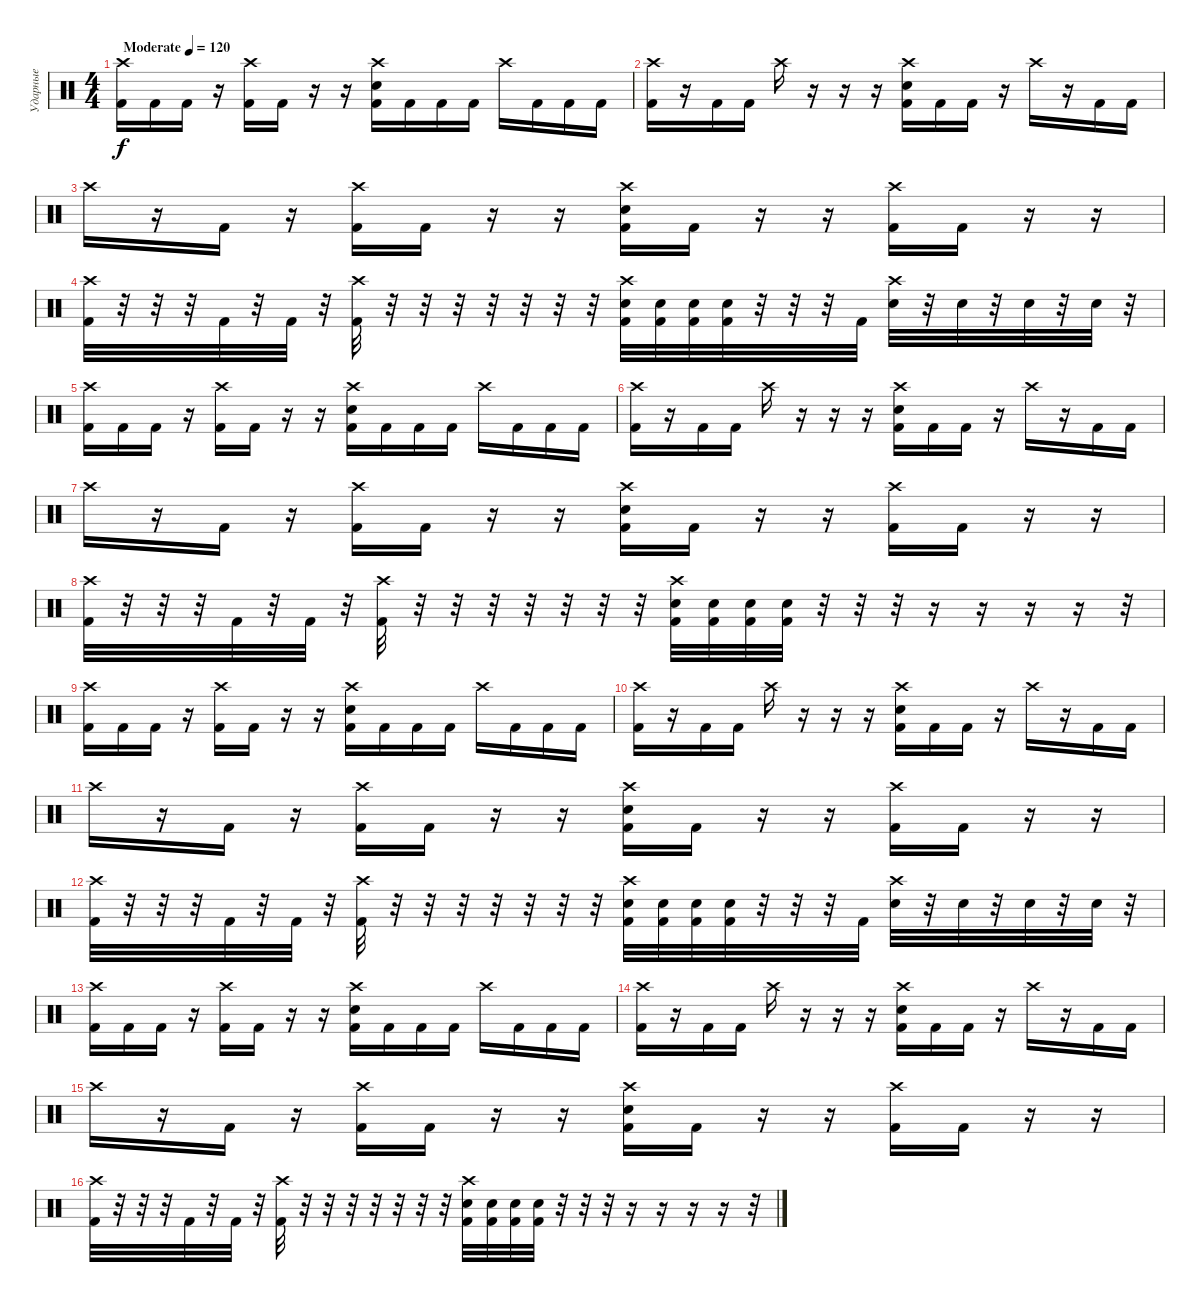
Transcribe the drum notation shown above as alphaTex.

\track ("Ударные" "Ударные") {instrument percussion}
\staff {score}
\articulation defaults
\ts (4 4)
\tempo (120 "Moderate")
\clef neutral
\ks c
("Crash high (hit)" "Kick (hit) 2").16{dy f} "Kick (hit) 2".16 "Kick (hit) 2".16 r.16 ("Crash high (hit)" "Kick (hit) 2").16 "Kick (hit) 2".16 r.16 r.16 ("Crash high (hit)" "Electric Snare (hit)" "Kick (hit) 2").16 "Kick (hit) 2".16 "Kick (hit) 2".16 "Kick (hit) 2".16 "Crash high (hit)".16 "Kick (hit) 2".16 "Kick (hit) 2".16 "Kick (hit) 2".16 |
("Crash high (hit)" "Kick (hit) 2").16 r.16 "Kick (hit) 2".16 "Kick (hit) 2".16 "Crash high (hit)".16 r.16 r.16 r.16 ("Crash high (hit)" "Electric Snare (hit)" "Kick (hit) 2").16 "Kick (hit) 2".16 "Kick (hit) 2".16 r.16 "Crash high (hit)".16 r.16 "Kick (hit) 2".16 "Kick (hit) 2".16 |
"Crash high (hit)".16 r.16 "Kick (hit) 2".16 r.16 ("Crash high (hit)" "Kick (hit) 2").16 "Kick (hit) 2".16 r.16 r.16 ("Crash high (hit)" "Electric Snare (hit)" "Kick (hit) 2").16 "Kick (hit) 2".16 r.16 r.16 ("Crash high (hit)" "Kick (hit) 2").16 "Kick (hit) 2".16 r.16 r.16 |
("Crash high (hit)" "Kick (hit) 2").32 r.32 r.32 r.32 "Kick (hit) 2".32 r.32 "Kick (hit) 2".32 r.32 ("Crash high (hit)" "Kick (hit) 2").32 r.32 r.32 r.32 r.32 r.32 r.32 r.32 ("Crash high (hit)" "Electric Snare (hit)" "Kick (hit) 2").32 ("Electric Snare (hit)" "Kick (hit) 2").32 ("Electric Snare (hit)" "Kick (hit) 2").32 ("Electric Snare (hit)" "Kick (hit) 2").32 r.32 r.32 r.32 "Kick (hit) 2".32 ("Crash high (hit)" "Electric Snare (hit)").32 r.32 "Electric Snare (hit)".32 r.32 "Electric Snare (hit)".32 r.32 "Electric Snare (hit)".32 r.32 |
("Crash high (hit)" "Kick (hit) 2").16 "Kick (hit) 2".16 "Kick (hit) 2".16 r.16 ("Crash high (hit)" "Kick (hit) 2").16 "Kick (hit) 2".16 r.16 r.16 ("Crash high (hit)" "Electric Snare (hit)" "Kick (hit) 2").16 "Kick (hit) 2".16 "Kick (hit) 2".16 "Kick (hit) 2".16 "Crash high (hit)".16 "Kick (hit) 2".16 "Kick (hit) 2".16 "Kick (hit) 2".16 |
("Crash high (hit)" "Kick (hit) 2").16 r.16 "Kick (hit) 2".16 "Kick (hit) 2".16 "Crash high (hit)".16 r.16 r.16 r.16 ("Crash high (hit)" "Electric Snare (hit)" "Kick (hit) 2").16 "Kick (hit) 2".16 "Kick (hit) 2".16 r.16 "Crash high (hit)".16 r.16 "Kick (hit) 2".16 "Kick (hit) 2".16 |
"Crash high (hit)".16 r.16 "Kick (hit) 2".16 r.16 ("Crash high (hit)" "Kick (hit) 2").16 "Kick (hit) 2".16 r.16 r.16 ("Crash high (hit)" "Electric Snare (hit)" "Kick (hit) 2").16 "Kick (hit) 2".16 r.16 r.16 ("Crash high (hit)" "Kick (hit) 2").16 "Kick (hit) 2".16 r.16 r.16 |
("Crash high (hit)" "Kick (hit) 2").32 r.32 r.32 r.32 "Kick (hit) 2".32 r.32 "Kick (hit) 2".32 r.32 ("Crash high (hit)" "Kick (hit) 2").32 r.32 r.32 r.32 r.32 r.32 r.32 r.32 ("Crash high (hit)" "Electric Snare (hit)" "Kick (hit) 2").32 ("Electric Snare (hit)" "Kick (hit) 2").32 ("Electric Snare (hit)" "Kick (hit) 2").32 ("Electric Snare (hit)" "Kick (hit) 2").32 r.32 r.32 r.32 r.16 r.16 r.16 r.16 r.32 |
("Crash high (hit)" "Kick (hit) 2").16 "Kick (hit) 2".16 "Kick (hit) 2".16 r.16 ("Crash high (hit)" "Kick (hit) 2").16 "Kick (hit) 2".16 r.16 r.16 ("Crash high (hit)" "Electric Snare (hit)" "Kick (hit) 2").16 "Kick (hit) 2".16 "Kick (hit) 2".16 "Kick (hit) 2".16 "Crash high (hit)".16 "Kick (hit) 2".16 "Kick (hit) 2".16 "Kick (hit) 2".16 |
("Crash high (hit)" "Kick (hit) 2").16 r.16 "Kick (hit) 2".16 "Kick (hit) 2".16 "Crash high (hit)".16 r.16 r.16 r.16 ("Crash high (hit)" "Electric Snare (hit)" "Kick (hit) 2").16 "Kick (hit) 2".16 "Kick (hit) 2".16 r.16 "Crash high (hit)".16 r.16 "Kick (hit) 2".16 "Kick (hit) 2".16 |
"Crash high (hit)".16 r.16 "Kick (hit) 2".16 r.16 ("Crash high (hit)" "Kick (hit) 2").16 "Kick (hit) 2".16 r.16 r.16 ("Crash high (hit)" "Electric Snare (hit)" "Kick (hit) 2").16 "Kick (hit) 2".16 r.16 r.16 ("Crash high (hit)" "Kick (hit) 2").16 "Kick (hit) 2".16 r.16 r.16 |
("Crash high (hit)" "Kick (hit) 2").32 r.32 r.32 r.32 "Kick (hit) 2".32 r.32 "Kick (hit) 2".32 r.32 ("Crash high (hit)" "Kick (hit) 2").32 r.32 r.32 r.32 r.32 r.32 r.32 r.32 ("Crash high (hit)" "Electric Snare (hit)" "Kick (hit) 2").32 ("Electric Snare (hit)" "Kick (hit) 2").32 ("Electric Snare (hit)" "Kick (hit) 2").32 ("Electric Snare (hit)" "Kick (hit) 2").32 r.32 r.32 r.32 "Kick (hit) 2".32 ("Crash high (hit)" "Electric Snare (hit)").32 r.32 "Electric Snare (hit)".32 r.32 "Electric Snare (hit)".32 r.32 "Electric Snare (hit)".32 r.32 |
("Crash high (hit)" "Kick (hit) 2").16 "Kick (hit) 2".16 "Kick (hit) 2".16 r.16 ("Crash high (hit)" "Kick (hit) 2").16 "Kick (hit) 2".16 r.16 r.16 ("Crash high (hit)" "Electric Snare (hit)" "Kick (hit) 2").16 "Kick (hit) 2".16 "Kick (hit) 2".16 "Kick (hit) 2".16 "Crash high (hit)".16 "Kick (hit) 2".16 "Kick (hit) 2".16 "Kick (hit) 2".16 |
("Crash high (hit)" "Kick (hit) 2").16 r.16 "Kick (hit) 2".16 "Kick (hit) 2".16 "Crash high (hit)".16 r.16 r.16 r.16 ("Crash high (hit)" "Electric Snare (hit)" "Kick (hit) 2").16 "Kick (hit) 2".16 "Kick (hit) 2".16 r.16 "Crash high (hit)".16 r.16 "Kick (hit) 2".16 "Kick (hit) 2".16 |
"Crash high (hit)".16 r.16 "Kick (hit) 2".16 r.16 ("Crash high (hit)" "Kick (hit) 2").16 "Kick (hit) 2".16 r.16 r.16 ("Crash high (hit)" "Electric Snare (hit)" "Kick (hit) 2").16 "Kick (hit) 2".16 r.16 r.16 ("Crash high (hit)" "Kick (hit) 2").16 "Kick (hit) 2".16 r.16 r.16 |
("Crash high (hit)" "Kick (hit) 2").32 r.32 r.32 r.32 "Kick (hit) 2".32 r.32 "Kick (hit) 2".32 r.32 ("Crash high (hit)" "Kick (hit) 2").32 r.32 r.32 r.32 r.32 r.32 r.32 r.32 ("Crash high (hit)" "Electric Snare (hit)" "Kick (hit) 2").32 ("Electric Snare (hit)" "Kick (hit) 2").32 ("Electric Snare (hit)" "Kick (hit) 2").32 ("Electric Snare (hit)" "Kick (hit) 2").32 r.32 r.32 r.32 r.16 r.16 r.16 r.16 r.32
